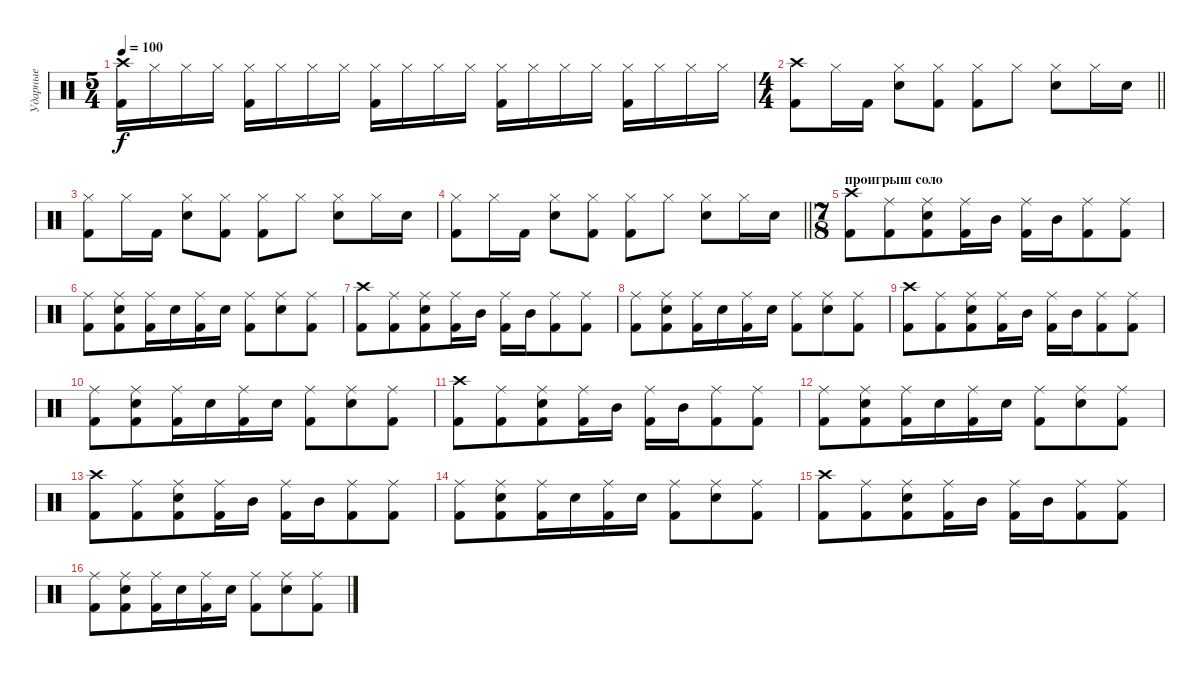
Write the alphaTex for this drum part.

\track ("Ударные" "Ударные") {instrument percussion}
\staff {score}
\articulation defaults
\ts (5 4)
\tempo 100
\clef neutral
\ks c
("Crash high (hit)" "Kick (hit) 2").16{dy f} "Hi-Hat (closed)".16 "Hi-Hat (closed)".16 "Hi-Hat (closed)".16 ("Hi-Hat (closed)" "Kick (hit) 2").16 "Hi-Hat (closed)".16 "Hi-Hat (closed)".16 "Hi-Hat (closed)".16 ("Hi-Hat (closed)" "Kick (hit) 2").16 "Hi-Hat (closed)".16 "Hi-Hat (closed)".16 "Hi-Hat (closed)".16 ("Hi-Hat (closed)" "Kick (hit) 2").16 "Hi-Hat (closed)".16 "Hi-Hat (closed)".16 "Hi-Hat (closed)".16 ("Hi-Hat (closed)" "Kick (hit) 2").16 "Hi-Hat (closed)".16 "Hi-Hat (closed)".16 "Hi-Hat (closed)".16 |
\ts (4 4)
\barLineRight lightlight
("Kick (hit) 2" "Crash high (hit)").8 "Hi-Hat (closed)".16 "Kick (hit) 2".16 ("Snare (hit) 2" "Hi-Hat (closed)").8 ("Kick (hit) 2" "Hi-Hat (closed)").8 ("Kick (hit) 2" "Hi-Hat (closed)").8 "Hi-Hat (closed)".8 ("Snare (hit) 2" "Hi-Hat (closed)").8 "Hi-Hat (closed)".16 "Snare (hit) 2".16 |
("Kick (hit) 2" "Hi-Hat (closed)").8 "Hi-Hat (closed)".16 "Kick (hit) 2".16 ("Snare (hit) 2" "Hi-Hat (closed)").8 ("Kick (hit) 2" "Hi-Hat (closed)").8 ("Kick (hit) 2" "Hi-Hat (closed)").8 "Hi-Hat (closed)".8 ("Snare (hit) 2" "Hi-Hat (closed)").8 "Hi-Hat (closed)".16 "Snare (hit) 2".16 |
\barLineRight lightlight
("Kick (hit) 2" "Hi-Hat (closed)").8 "Hi-Hat (closed)".16 "Kick (hit) 2".16 ("Snare (hit) 2" "Hi-Hat (closed)").8 ("Kick (hit) 2" "Hi-Hat (closed)").8 ("Kick (hit) 2" "Hi-Hat (closed)").8 "Hi-Hat (closed)".8 ("Snare (hit) 2" "Hi-Hat (closed)").8 "Hi-Hat (closed)".16 "Snare (hit) 2".16 |
\ts (7 8)
\section ("" "проигрыш соло")
("Kick (hit) 2" "Crash high (hit)").8 ("Kick (hit) 2" "Ride (middle)").8 ("Kick (hit) 2" "Ride (middle)" "Snare (hit) 2").8 ("Ride (middle)" "Kick (hit) 2").16 "Mid Tom (hit)".16 ("Ride (middle)" "Kick (hit) 2").16 "Mid Tom (hit)".16 ("Ride (middle)" "Kick (hit) 2").8 ("Kick (hit) 2" "Ride (middle)").8 |
("Kick (hit) 2" "Ride (middle)").8 ("Kick (hit) 2" "Ride (middle)" "Snare (hit) 2").8 ("Ride (middle)" "Kick (hit) 2").16 "Snare (hit) 2".16 ("Ride (middle)" "Kick (hit) 2").16 "Snare (hit) 2".16 ("Ride (middle)" "Kick (hit) 2").8 ("Snare (hit) 2" "Ride (middle)").8 ("Kick (hit) 2" "Ride (middle)").8 |
("Kick (hit) 2" "Crash high (hit)").8 ("Kick (hit) 2" "Ride (middle)").8 ("Kick (hit) 2" "Ride (middle)" "Snare (hit) 2").8 ("Ride (middle)" "Kick (hit) 2").16 "Mid Tom (hit)".16 ("Ride (middle)" "Kick (hit) 2").16 "Mid Tom (hit)".16 ("Ride (middle)" "Kick (hit) 2").8 ("Kick (hit) 2" "Ride (middle)").8 |
("Kick (hit) 2" "Ride (middle)").8 ("Kick (hit) 2" "Ride (middle)" "Snare (hit) 2").8 ("Ride (middle)" "Kick (hit) 2").16 "Snare (hit) 2".16 ("Ride (middle)" "Kick (hit) 2").16 "Snare (hit) 2".16 ("Ride (middle)" "Kick (hit) 2").8 ("Snare (hit) 2" "Ride (middle)").8 ("Kick (hit) 2" "Ride (middle)").8 |
("Kick (hit) 2" "Crash high (hit)").8 ("Kick (hit) 2" "Ride (middle)").8 ("Kick (hit) 2" "Ride (middle)" "Snare (hit) 2").8 ("Ride (middle)" "Kick (hit) 2").16 "Mid Tom (hit)".16 ("Ride (middle)" "Kick (hit) 2").16 "Mid Tom (hit)".16 ("Ride (middle)" "Kick (hit) 2").8 ("Kick (hit) 2" "Ride (middle)").8 |
("Kick (hit) 2" "Ride (middle)").8 ("Kick (hit) 2" "Ride (middle)" "Snare (hit) 2").8 ("Ride (middle)" "Kick (hit) 2").16 "Snare (hit) 2".16 ("Ride (middle)" "Kick (hit) 2").16 "Snare (hit) 2".16 ("Ride (middle)" "Kick (hit) 2").8 ("Snare (hit) 2" "Ride (middle)").8 ("Kick (hit) 2" "Ride (middle)").8 |
("Kick (hit) 2" "Crash high (hit)").8 ("Kick (hit) 2" "Ride (middle)").8 ("Kick (hit) 2" "Ride (middle)" "Snare (hit) 2").8 ("Ride (middle)" "Kick (hit) 2").16 "Mid Tom (hit)".16 ("Ride (middle)" "Kick (hit) 2").16 "Mid Tom (hit)".16 ("Ride (middle)" "Kick (hit) 2").8 ("Kick (hit) 2" "Ride (middle)").8 |
("Kick (hit) 2" "Ride (middle)").8 ("Kick (hit) 2" "Ride (middle)" "Snare (hit) 2").8 ("Ride (middle)" "Kick (hit) 2").16 "Snare (hit) 2".16 ("Ride (middle)" "Kick (hit) 2").16 "Snare (hit) 2".16 ("Ride (middle)" "Kick (hit) 2").8 ("Snare (hit) 2" "Ride (middle)").8 ("Kick (hit) 2" "Ride (middle)").8 |
("Kick (hit) 2" "Crash high (hit)").8 ("Kick (hit) 2" "Ride (middle)").8 ("Kick (hit) 2" "Ride (middle)" "Snare (hit) 2").8 ("Ride (middle)" "Kick (hit) 2").16 "Mid Tom (hit)".16 ("Ride (middle)" "Kick (hit) 2").16 "Mid Tom (hit)".16 ("Ride (middle)" "Kick (hit) 2").8 ("Kick (hit) 2" "Ride (middle)").8 |
("Kick (hit) 2" "Ride (middle)").8 ("Kick (hit) 2" "Ride (middle)" "Snare (hit) 2").8 ("Ride (middle)" "Kick (hit) 2").16 "Snare (hit) 2".16 ("Ride (middle)" "Kick (hit) 2").16 "Snare (hit) 2".16 ("Ride (middle)" "Kick (hit) 2").8 ("Snare (hit) 2" "Ride (middle)").8 ("Kick (hit) 2" "Ride (middle)").8 |
("Kick (hit) 2" "Crash high (hit)").8 ("Kick (hit) 2" "Ride (middle)").8 ("Kick (hit) 2" "Ride (middle)" "Snare (hit) 2").8 ("Ride (middle)" "Kick (hit) 2").16 "Mid Tom (hit)".16 ("Ride (middle)" "Kick (hit) 2").16 "Mid Tom (hit)".16 ("Ride (middle)" "Kick (hit) 2").8 ("Kick (hit) 2" "Ride (middle)").8 |
("Kick (hit) 2" "Ride (middle)").8 ("Kick (hit) 2" "Ride (middle)" "Snare (hit) 2").8 ("Ride (middle)" "Kick (hit) 2").16 "Snare (hit) 2".16 ("Ride (middle)" "Kick (hit) 2").16 "Snare (hit) 2".16 ("Ride (middle)" "Kick (hit) 2").8 ("Snare (hit) 2" "Ride (middle)").8 ("Kick (hit) 2" "Ride (middle)").8
